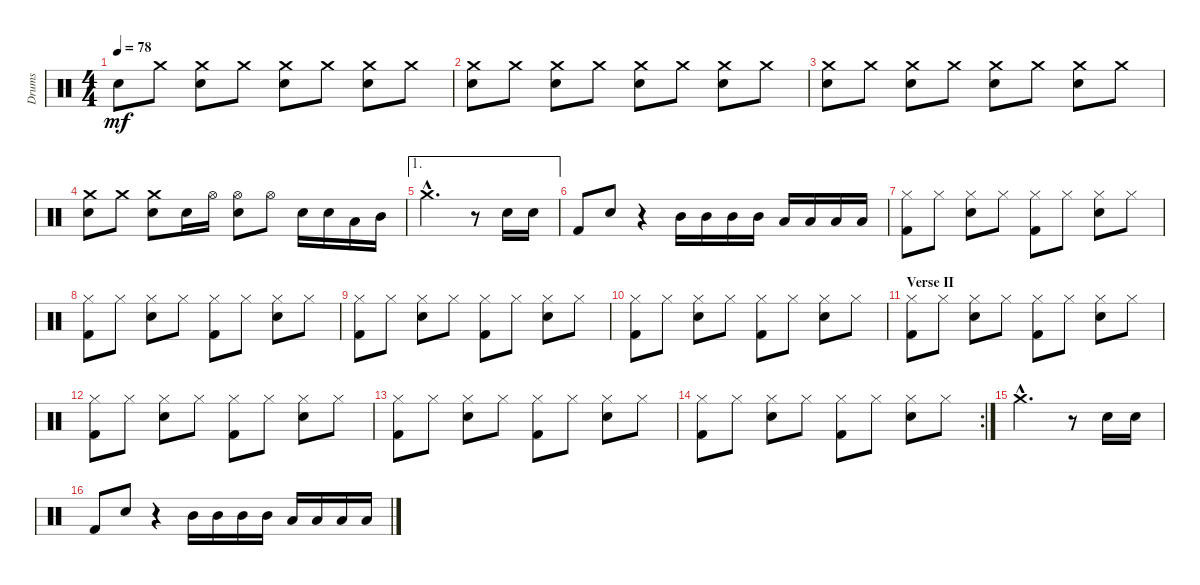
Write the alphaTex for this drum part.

\track ("Drums" "Drums") {instrument percussion}
\staff {score}
\articulation defaults
\ts (4 4)
\tempo 78
\clef neutral
\ks c "Electric Snare (hit)".8{dy mf} "Crash medium (hit)".8
("Crash medium (hit)" "Electric Snare (hit)").8 "Crash medium (hit)".8 ("Crash medium (hit)" "Electric Snare (hit)").8 "Crash medium (hit)".8 ("Crash medium (hit)" "Electric Snare (hit)").8 "Crash medium (hit)".8 |
("Crash medium (hit)" "Electric Snare (hit)").8 "Crash medium (hit)".8 ("Crash medium (hit)" "Electric Snare (hit)").8 "Crash medium (hit)".8 ("Crash medium (hit)" "Electric Snare (hit)").8 "Crash medium (hit)".8 ("Crash medium (hit)" "Electric Snare (hit)").8 "Crash medium (hit)".8 |
("Crash medium (hit)" "Electric Snare (hit)").8 "Crash medium (hit)".8 ("Crash medium (hit)" "Electric Snare (hit)").8 "Crash medium (hit)".8 ("Crash medium (hit)" "Electric Snare (hit)").8 "Crash medium (hit)".8 ("Crash medium (hit)" "Electric Snare (hit)").8 "Crash medium (hit)".8 |
("Crash medium (hit)" "Electric Snare (hit)").8 "Crash medium (hit)".8 ("Crash medium (hit)" "Electric Snare (hit)").8 "Electric Snare (hit)".16 "Hi-Hat (open)".16 ("Hi-Hat (open)" "Electric Snare (hit)").8 "Hi-Hat (open)".8 "Electric Snare (hit)".16 "Electric Snare (hit)".16 "Low Tom (hit)".16 "Mid Tom (hit)".16 |
\ae 1 "Crash medium (hit)"{hac}.2{d}
r.8 "Electric Snare (hit)".16 "Electric Snare (hit)".16 |
"Kick (hit) 2".8 "Electric Snare (hit)".8 r.4 "Mid Tom (hit)".16 "Mid Tom (hit)".16 "Mid Tom (hit)".16 "Mid Tom (hit)".16 "Low Tom (hit)".16 "Low Tom (hit)".16 "Low Tom (hit)".16 "Low Tom (hit)".16 |
("Hi-Hat (closed)" "Kick (hit) 2").8 "Hi-Hat (closed)".8 ("Hi-Hat (closed)" "Electric Snare (hit)").8 "Hi-Hat (closed)".8 ("Hi-Hat (closed)" "Kick (hit) 2").8 "Hi-Hat (closed)".8 ("Hi-Hat (closed)" "Electric Snare (hit)").8 "Hi-Hat (closed)".8 |
("Hi-Hat (closed)" "Kick (hit) 2").8 "Hi-Hat (closed)".8 ("Hi-Hat (closed)" "Electric Snare (hit)").8 "Hi-Hat (closed)".8 ("Hi-Hat (closed)" "Kick (hit) 2").8 "Hi-Hat (closed)".8 ("Hi-Hat (closed)" "Electric Snare (hit)").8 "Hi-Hat (closed)".8 |
("Hi-Hat (closed)" "Kick (hit) 2").8 "Hi-Hat (closed)".8 ("Hi-Hat (closed)" "Electric Snare (hit)").8 "Hi-Hat (closed)".8 ("Hi-Hat (closed)" "Kick (hit) 2").8 "Hi-Hat (closed)".8 ("Hi-Hat (closed)" "Electric Snare (hit)").8 "Hi-Hat (closed)".8 |
("Hi-Hat (closed)" "Kick (hit) 2").8 "Hi-Hat (closed)".8 ("Hi-Hat (closed)" "Electric Snare (hit)").8 "Hi-Hat (closed)".8 ("Hi-Hat (closed)" "Kick (hit) 2").8 "Hi-Hat (closed)".8 ("Hi-Hat (closed)" "Electric Snare (hit)").8 "Hi-Hat (closed)".8 |
\section ("" "Verse II")
("Hi-Hat (closed)" "Kick (hit) 2").8 "Hi-Hat (closed)".8 ("Hi-Hat (closed)" "Electric Snare (hit)").8 "Hi-Hat (closed)".8 ("Hi-Hat (closed)" "Kick (hit) 2").8 "Hi-Hat (closed)".8 ("Hi-Hat (closed)" "Electric Snare (hit)").8 "Hi-Hat (closed)".8 |
("Hi-Hat (closed)" "Kick (hit) 2").8 "Hi-Hat (closed)".8 ("Hi-Hat (closed)" "Electric Snare (hit)").8 "Hi-Hat (closed)".8 ("Hi-Hat (closed)" "Kick (hit) 2").8 "Hi-Hat (closed)".8 ("Hi-Hat (closed)" "Electric Snare (hit)").8 "Hi-Hat (closed)".8 |
("Hi-Hat (closed)" "Kick (hit) 2").8 "Hi-Hat (closed)".8 ("Hi-Hat (closed)" "Electric Snare (hit)").8 "Hi-Hat (closed)".8 ("Hi-Hat (closed)" "Kick (hit) 2").8 "Hi-Hat (closed)".8 ("Hi-Hat (closed)" "Electric Snare (hit)").8 "Hi-Hat (closed)".8 |
\rc 2
("Hi-Hat (closed)" "Kick (hit) 2").8 "Hi-Hat (closed)".8 ("Hi-Hat (closed)" "Electric Snare (hit)").8 "Hi-Hat (closed)".8 ("Hi-Hat (closed)" "Kick (hit) 2").8 "Hi-Hat (closed)".8 ("Hi-Hat (closed)" "Electric Snare (hit)").8 "Hi-Hat (closed)".8 |
"Crash medium (hit)"{hac}.2{d} r.8 "Electric Snare (hit)".16 "Electric Snare (hit)".16 |
"Kick (hit) 2".8 "Electric Snare (hit)".8 r.4 "Mid Tom (hit)".16 "Mid Tom (hit)".16 "Mid Tom (hit)".16 "Mid Tom (hit)".16 "Low Tom (hit)".16 "Low Tom (hit)".16 "Low Tom (hit)".16 "Low Tom (hit)".16
